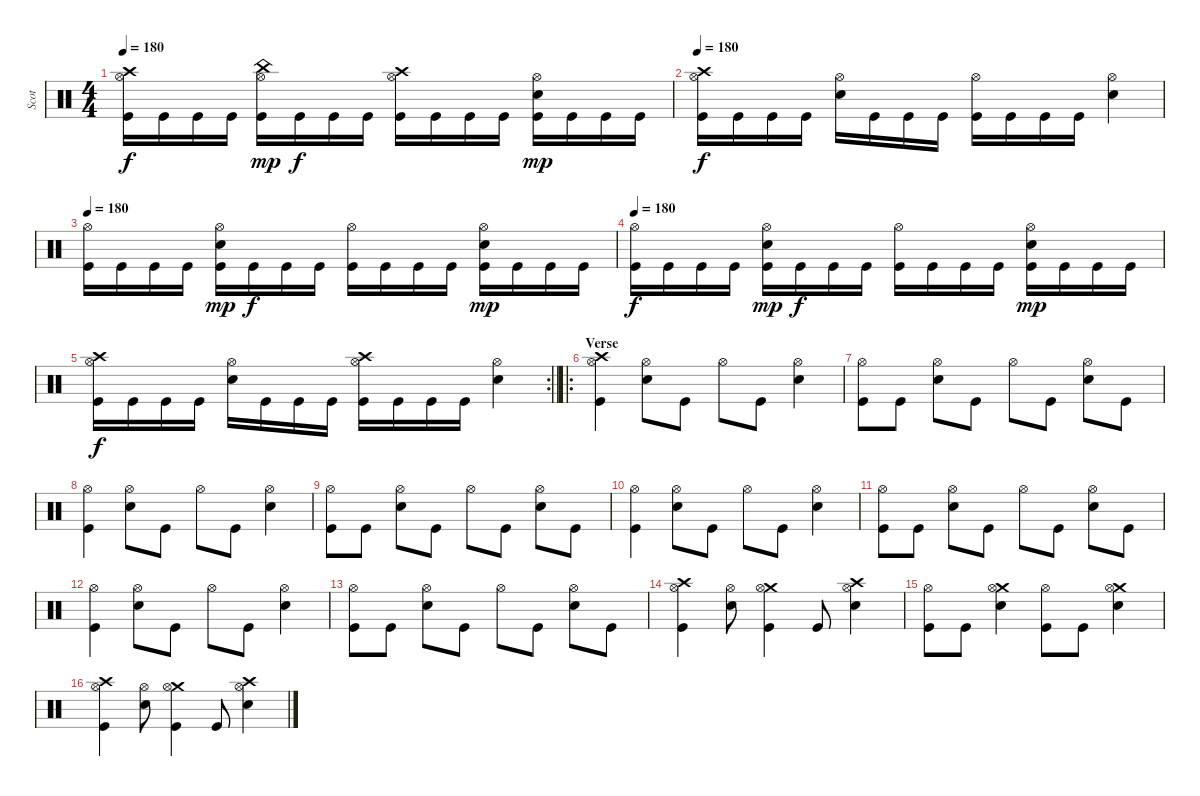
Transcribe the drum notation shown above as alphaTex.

\track ("Scot" "Scot") {instrument percussion}
\staff {score}
\articulation defaults
\ts (4 4)
\tempo 180
\clef neutral
\ks c
("Crash high (hit)" "Hi-Hat (open)" "Kick (hit)").16{dy f} "Kick (hit)".16 "Kick (hit)".16 "Kick (hit)".16 ("China (hit)" "Hi-Hat (open)" "Kick (hit)").16{dy mp} "Kick (hit)".16{dy f} "Kick (hit)".16 "Kick (hit)".16 ("Crash high (hit)" "Hi-Hat (open)" "Kick (hit)").16 "Kick (hit)".16 "Kick (hit)".16 "Kick (hit)".16 ("Electric Snare (hit)" "Hi-Hat (open)" "Kick (hit)").16{dy mp} "Kick (hit)".16 "Kick (hit)".16 "Kick (hit)".16 |
\tempo 180
("Crash high (hit)" "Hi-Hat (open)" "Kick (hit)").16{dy f} "Kick (hit)".16 "Kick (hit)".16 "Kick (hit)".16 ("Electric Snare (hit)" "Hi-Hat (open)").16 "Kick (hit)".16 "Kick (hit)".16 "Kick (hit)".16 ("Hi-Hat (open)" "Kick (hit)").16 "Kick (hit)".16 "Kick (hit)".16 "Kick (hit)".16 ("Electric Snare (hit)" "Hi-Hat (open)").4 |
\tempo 180
("Hi-Hat (open)" "Kick (hit)").16 "Kick (hit)".16 "Kick (hit)".16 "Kick (hit)".16 ("Electric Snare (hit)" "Hi-Hat (open)" "Kick (hit)").16{dy mp} "Kick (hit)".16{dy f} "Kick (hit)".16 "Kick (hit)".16 ("Hi-Hat (open)" "Kick (hit)").16 "Kick (hit)".16 "Kick (hit)".16 "Kick (hit)".16 ("Electric Snare (hit)" "Hi-Hat (open)" "Kick (hit)").16{dy mp} "Kick (hit)".16 "Kick (hit)".16 "Kick (hit)".16 |
\tempo 180
("Hi-Hat (open)" "Kick (hit)").16{dy f} "Kick (hit)".16 "Kick (hit)".16 "Kick (hit)".16 ("Electric Snare (hit)" "Hi-Hat (open)" "Kick (hit)").16{dy mp} "Kick (hit)".16{dy f} "Kick (hit)".16 "Kick (hit)".16 ("Hi-Hat (open)" "Kick (hit)").16 "Kick (hit)".16 "Kick (hit)".16 "Kick (hit)".16 ("Electric Snare (hit)" "Hi-Hat (open)" "Kick (hit)").16{dy mp} "Kick (hit)".16 "Kick (hit)".16 "Kick (hit)".16 |
\rc 2
\barLineRight lightlight
("Crash high (hit)" "Hi-Hat (open)" "Kick (hit)").16{dy f} "Kick (hit)".16 "Kick (hit)".16 "Kick (hit)".16 ("Electric Snare (hit)" "Hi-Hat (open)").16 "Kick (hit)".16 "Kick (hit)".16 "Kick (hit)".16 ("Crash high (hit)" "Hi-Hat (open)" "Kick (hit)").16 "Kick (hit)".16 "Kick (hit)".16 "Kick (hit)".16 ("Electric Snare (hit)" "Hi-Hat (open)").4 |
\ro
\section ("" "Verse")
("Crash high (hit)" "Hi-Hat (open)" "Kick (hit)").4 ("Electric Snare (hit)" "Hi-Hat (open)").8 "Kick (hit)".8 "Hi-Hat (open)".8 "Kick (hit)".8 ("Electric Snare (hit)" "Hi-Hat (open)").4 |
("Hi-Hat (open)" "Kick (hit)").8 "Kick (hit)".8 ("Electric Snare (hit)" "Hi-Hat (open)").8 "Kick (hit)".8 "Hi-Hat (open)".8 "Kick (hit)".8 ("Electric Snare (hit)" "Hi-Hat (open)").8 "Kick (hit)".8 |
("Hi-Hat (open)" "Kick (hit)").4 ("Electric Snare (hit)" "Hi-Hat (open)").8 "Kick (hit)".8 "Hi-Hat (open)".8 "Kick (hit)".8 ("Electric Snare (hit)" "Hi-Hat (open)").4 |
("Hi-Hat (open)" "Kick (hit)").8 "Kick (hit)".8 ("Electric Snare (hit)" "Hi-Hat (open)").8 "Kick (hit)".8 "Hi-Hat (open)".8 "Kick (hit)".8 ("Electric Snare (hit)" "Hi-Hat (open)").8 "Kick (hit)".8 |
("Hi-Hat (open)" "Kick (hit)").4 ("Electric Snare (hit)" "Hi-Hat (open)").8 "Kick (hit)".8 "Hi-Hat (open)".8 "Kick (hit)".8 ("Electric Snare (hit)" "Hi-Hat (open)").4 |
("Hi-Hat (open)" "Kick (hit)").8 "Kick (hit)".8 ("Electric Snare (hit)" "Hi-Hat (open)").8 "Kick (hit)".8 "Hi-Hat (open)".8 "Kick (hit)".8 ("Electric Snare (hit)" "Hi-Hat (open)").8 "Kick (hit)".8 |
("Hi-Hat (open)" "Kick (hit)").4 ("Electric Snare (hit)" "Hi-Hat (open)").8 "Kick (hit)".8 "Hi-Hat (open)".8 "Kick (hit)".8 ("Electric Snare (hit)" "Hi-Hat (open)").4 |
("Hi-Hat (open)" "Kick (hit)").8 "Kick (hit)".8 ("Electric Snare (hit)" "Hi-Hat (open)").8 "Kick (hit)".8 "Hi-Hat (open)".8 "Kick (hit)".8 ("Electric Snare (hit)" "Hi-Hat (open)").8 "Kick (hit)".8 |
("Crash high (hit)" "Hi-Hat (open)" "Kick (hit)").4 ("Electric Snare (hit)" "Hi-Hat (open)").8 ("Crash medium (hit)" "Hi-Hat (open)" "Kick (hit)").4 "Kick (hit)".8 ("Crash high (hit)" "Electric Snare (hit)" "Hi-Hat (open)").4 |
("Hi-Hat (open)" "Kick (hit)").8 "Kick (hit)".8 ("Crash medium (hit)" "Electric Snare (hit)" "Hi-Hat (open)").4 ("Hi-Hat (open)" "Kick (hit)").8 "Kick (hit)".8 ("Crash medium (hit)" "Electric Snare (hit)" "Hi-Hat (open)").4 |
("Crash high (hit)" "Hi-Hat (open)" "Kick (hit)").4 ("Electric Snare (hit)" "Hi-Hat (open)").8 ("Crash medium (hit)" "Hi-Hat (open)" "Kick (hit)").4 "Kick (hit)".8 ("Crash high (hit)" "Electric Snare (hit)" "Hi-Hat (open)").4
